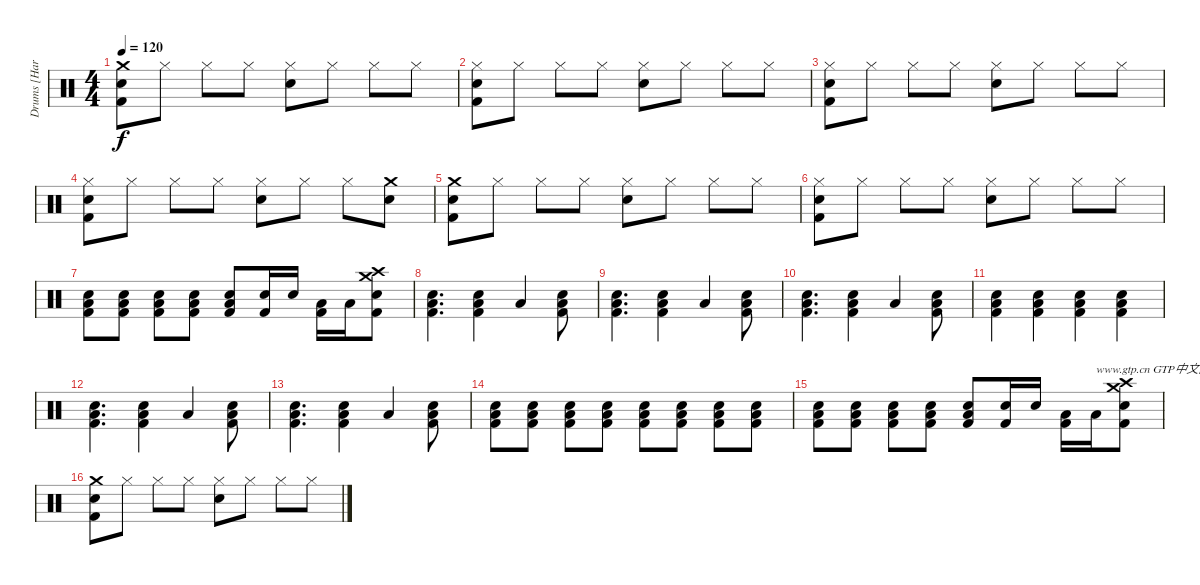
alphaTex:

\track ("Drums [Harry]" "Drums [Har") {instrument percussion}
\staff {score}
\articulation defaults
\ts (4 4)
\tempo 120
\clef neutral
\ks c
("Crash medium (hit)" "Snare (hit) 2" "Kick (hit) 2").8{dy f} "Hi-Hat (closed)".8 "Hi-Hat (closed)".8 "Hi-Hat (closed)".8 ("Snare (hit) 2" "Hi-Hat (closed)").8 "Hi-Hat (closed)".8 "Hi-Hat (closed)".8 "Hi-Hat (closed)".8 |
("Snare (hit) 2" "Hi-Hat (closed)" "Kick (hit) 2").8 "Hi-Hat (closed)".8 "Hi-Hat (closed)".8 "Hi-Hat (closed)".8 ("Snare (hit) 2" "Hi-Hat (closed)").8 "Hi-Hat (closed)".8 "Hi-Hat (closed)".8 "Hi-Hat (closed)".8 |
("Snare (hit) 2" "Hi-Hat (closed)" "Kick (hit) 2").8 "Hi-Hat (closed)".8 "Hi-Hat (closed)".8 "Hi-Hat (closed)".8 ("Snare (hit) 2" "Hi-Hat (closed)").8 "Hi-Hat (closed)".8 "Hi-Hat (closed)".8 "Hi-Hat (closed)".8 |
("Snare (hit) 2" "Hi-Hat (closed)" "Kick (hit) 2").8 "Hi-Hat (closed)".8 "Hi-Hat (closed)".8 "Hi-Hat (closed)".8 ("Snare (hit) 2" "Hi-Hat (closed)").8 "Hi-Hat (closed)".8 "Hi-Hat (closed)".8 ("Crash medium (hit)" "Snare (hit) 2").8 |
("Crash medium (hit)" "Snare (hit) 2" "Kick (hit) 2").8 "Hi-Hat (closed)".8 "Hi-Hat (closed)".8 "Hi-Hat (closed)".8 ("Snare (hit) 2" "Hi-Hat (closed)").8 "Hi-Hat (closed)".8 "Hi-Hat (closed)".8 "Hi-Hat (closed)".8 |
("Snare (hit) 2" "Hi-Hat (closed)" "Kick (hit) 2").8 "Hi-Hat (closed)".8 "Hi-Hat (closed)".8 "Hi-Hat (closed)".8 ("Snare (hit) 2" "Hi-Hat (closed)").8 "Hi-Hat (closed)".8 "Hi-Hat (closed)".8 "Hi-Hat (closed)".8 |
("Snare (hit) 2" "Low Floor Tom (hit)" "Kick (hit) 2").8 ("Snare (hit) 2" "Low Floor Tom (hit)" "Kick (hit) 2").8 ("Snare (hit) 2" "Low Floor Tom (hit)" "Kick (hit) 2").8 ("Snare (hit) 2" "Low Floor Tom (hit)" "Kick (hit) 2").8 ("Snare (hit) 2" "Low Floor Tom (hit)" "Kick (hit) 2").8 ("Snare (hit) 2" "Kick (hit) 2").16 "Snare (hit) 2".16 ("Low Tom (hit)" "Kick (hit) 2").16 "Low Tom (hit)".16 ("Crash medium (hit)" "Crash high (hit)" "Snare (hit) 2" "Kick (hit) 2").8 |
("Snare (hit) 2" "Low Floor Tom (hit)" "Kick (hit) 2").4{d} ("Snare (hit) 2" "Low Floor Tom (hit)" "Kick (hit) 2").4 "Low Floor Tom (hit)".4 ("Snare (hit) 2" "Low Floor Tom (hit)" "Kick (hit) 2").8 |
("Snare (hit) 2" "Low Floor Tom (hit)" "Kick (hit) 2").4{d} ("Snare (hit) 2" "Low Floor Tom (hit)" "Kick (hit) 2").4 "Low Floor Tom (hit)".4 ("Snare (hit) 2" "Low Floor Tom (hit)" "Kick (hit) 2").8 |
("Snare (hit) 2" "Low Floor Tom (hit)" "Kick (hit) 2").4{d} ("Snare (hit) 2" "Low Floor Tom (hit)" "Kick (hit) 2").4 "Low Floor Tom (hit)".4 ("Snare (hit) 2" "Low Floor Tom (hit)" "Kick (hit) 2").8 |
("Snare (hit) 2" "Low Floor Tom (hit)" "Kick (hit) 2").4 ("Snare (hit) 2" "Low Floor Tom (hit)" "Kick (hit) 2").4 ("Snare (hit) 2" "Low Floor Tom (hit)" "Kick (hit) 2").4 ("Snare (hit) 2" "Low Floor Tom (hit)" "Kick (hit) 2").4 |
("Snare (hit) 2" "Low Floor Tom (hit)" "Kick (hit) 2").4{d} ("Snare (hit) 2" "Low Floor Tom (hit)" "Kick (hit) 2").4 "Low Floor Tom (hit)".4 ("Snare (hit) 2" "Low Floor Tom (hit)" "Kick (hit) 2").8 |
("Snare (hit) 2" "Low Floor Tom (hit)" "Kick (hit) 2").4{d} ("Snare (hit) 2" "Low Floor Tom (hit)" "Kick (hit) 2").4 "Low Floor Tom (hit)".4 ("Snare (hit) 2" "Low Floor Tom (hit)" "Kick (hit) 2").8 |
("Snare (hit) 2" "Low Floor Tom (hit)" "Kick (hit) 2").8 ("Snare (hit) 2" "Low Floor Tom (hit)" "Kick (hit) 2").8 ("Snare (hit) 2" "Low Floor Tom (hit)" "Kick (hit) 2").8 ("Snare (hit) 2" "Low Floor Tom (hit)" "Kick (hit) 2").8 ("Snare (hit) 2" "Low Floor Tom (hit)" "Kick (hit) 2").8 ("Snare (hit) 2" "Low Floor Tom (hit)" "Kick (hit) 2").8 ("Snare (hit) 2" "Low Floor Tom (hit)" "Kick (hit) 2").8 ("Snare (hit) 2" "Low Floor Tom (hit)" "Kick (hit) 2").8 |
("Snare (hit) 2" "Low Floor Tom (hit)" "Kick (hit) 2").8 ("Snare (hit) 2" "Low Floor Tom (hit)" "Kick (hit) 2").8 ("Snare (hit) 2" "Low Floor Tom (hit)" "Kick (hit) 2").8 ("Snare (hit) 2" "Low Floor Tom (hit)" "Kick (hit) 2").8 ("Snare (hit) 2" "Low Floor Tom (hit)" "Kick (hit) 2").8 ("Snare (hit) 2" "Kick (hit) 2").16 "Snare (hit) 2".16 ("Low Tom (hit)" "Kick (hit) 2").16 "Low Tom (hit)".16{txt "www.gtp.cn GTP中文网为您提供优秀的谱子"} ("Crash medium (hit)" "Crash high (hit)" "Snare (hit) 2" "Kick (hit) 2").8 |
("Crash medium (hit)" "Snare (hit) 2" "Kick (hit) 2").8 "Hi-Hat (closed)".8 "Hi-Hat (closed)".8 "Hi-Hat (closed)".8 ("Snare (hit) 2" "Hi-Hat (closed)").8 "Hi-Hat (closed)".8 "Hi-Hat (closed)".8 "Hi-Hat (closed)".8
